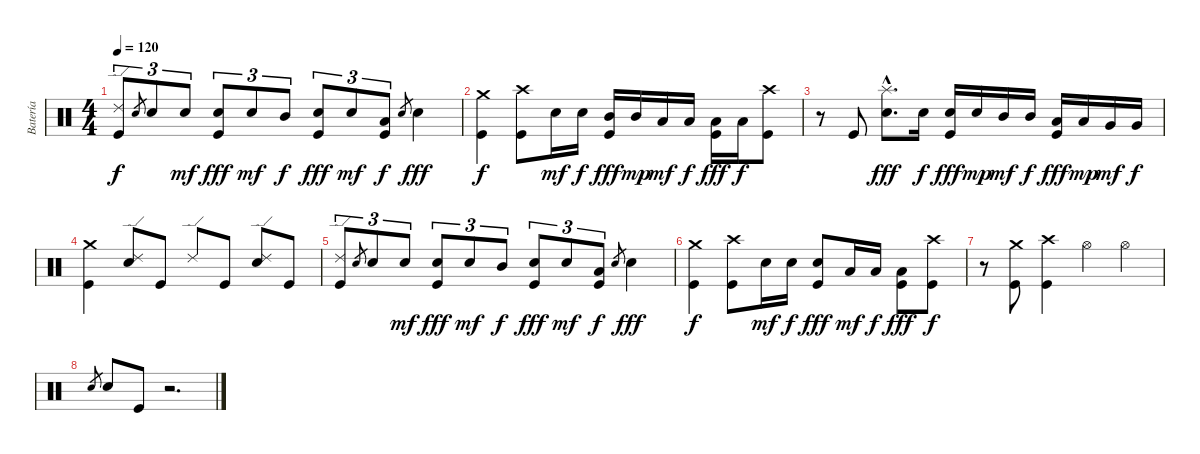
\track ("Batería" "Batería") {instrument percussion}
\staff {score}
\articulation defaults
\ts (4 4)
\tempo 120
\clef neutral
\ks c
("Kick (hit)" "Ride (edge) 2").8{tu (3 2) dy f} "Electric Snare (hit)".8{gr} "Electric Snare (hit)".8{tu (3 2)} "Electric Snare (hit)".8{tu (3 2) dy mf} ("Kick (hit)" "Electric Snare (hit)").8{tu (3 2) dy fff} "Electric Snare (hit)".8{tu (3 2) dy mf} "Mid Tom (hit)".8{tu (3 2) dy f} ("Kick (hit)" "Electric Snare (hit)").8{tu (3 2) dy fff} "Electric Snare (hit)".8{tu (3 2) dy mf} ("Kick (hit)" "Low Tom (hit)").8{tu (3 2) dy f} "Electric Snare (hit)".8{gr} "Electric Snare (hit)".4{dy fff} |
("Kick (hit)" "Crash medium (hit)").4{dy f} ("Kick (hit)" "Crash high (hit)").8 "Electric Snare (hit)".16{dy mf} "Electric Snare (hit)".16{dy f} ("Kick (hit)" "Mid Tom (hit)").16{dy fff} "Mid Tom (hit)".16{dy mp} "Low Tom (hit)".16{dy mf} "Low Tom (hit)".16{dy f} ("Kick (hit)" "Low Tom (hit)").16{dy fff} "Low Tom (hit)".16{dy f} ("Kick (hit)" "Crash high (hit)").8 |
r.8 "Kick (hit)".8 ("Electric Snare (hit)"{hac} "Splash (hit)"{hac}).8{d dy fff} "Electric Snare (hit)".16{dy f} ("Kick (hit)" "Electric Snare (hit)").16{dy fff} "Electric Snare (hit)".16{dy mp} "Mid Tom (hit)".16{dy mf} "Mid Tom (hit)".16{dy f} ("Kick (hit)" "Low Tom (hit)").16{dy fff} "Low Tom (hit)".16{dy mp} "Very Low Tom (hit)".16{dy mf} "Very Low Tom (hit)".16{dy f} |
("Kick (hit)" "Crash medium (hit)").4 ("Electric Snare (hit)" "Ride (edge) 2").8 "Kick (hit)".8 "Ride (edge) 2".8 "Kick (hit)".8 ("Electric Snare (hit)" "Ride (edge) 2").8 "Kick (hit)".8 |
("Kick (hit)" "Ride (edge) 2").8{tu (3 2)} "Electric Snare (hit)".8{gr} "Electric Snare (hit)".8{tu (3 2)} "Electric Snare (hit)".8{tu (3 2) dy mf} ("Kick (hit)" "Electric Snare (hit)").8{tu (3 2) dy fff} "Electric Snare (hit)".8{tu (3 2) dy mf} "Mid Tom (hit)".8{tu (3 2) dy f} ("Kick (hit)" "Electric Snare (hit)").8{tu (3 2) dy fff} "Electric Snare (hit)".8{tu (3 2) dy mf} ("Kick (hit)" "Low Tom (hit)").8{tu (3 2) dy f} "Electric Snare (hit)".8{gr} "Electric Snare (hit)".4{dy fff} |
("Kick (hit)" "Crash medium (hit)").4{dy f} ("Kick (hit)" "Crash high (hit)").8 "Electric Snare (hit)".16{dy mf} "Electric Snare (hit)".16{dy f} ("Kick (hit)" "Electric Snare (hit)").8{dy fff} "Low Tom (hit)".16{dy mf} "Low Tom (hit)".16{dy f} ("Kick (hit)" "Low Tom (hit)").8{dy fff} ("Kick (hit)" "Crash high (hit)").8{dy f} |
r.8 ("Kick (hit)" "Crash medium (hit)").8 ("Kick (hit)" "Crash high (hit)").4 "Hi-Hat (open)".4 "Hi-Hat (open)".4 |
"Electric Snare (hit)".8{gr} "Electric Snare (hit)".8 "Kick (hit)".8 r.2{d}
